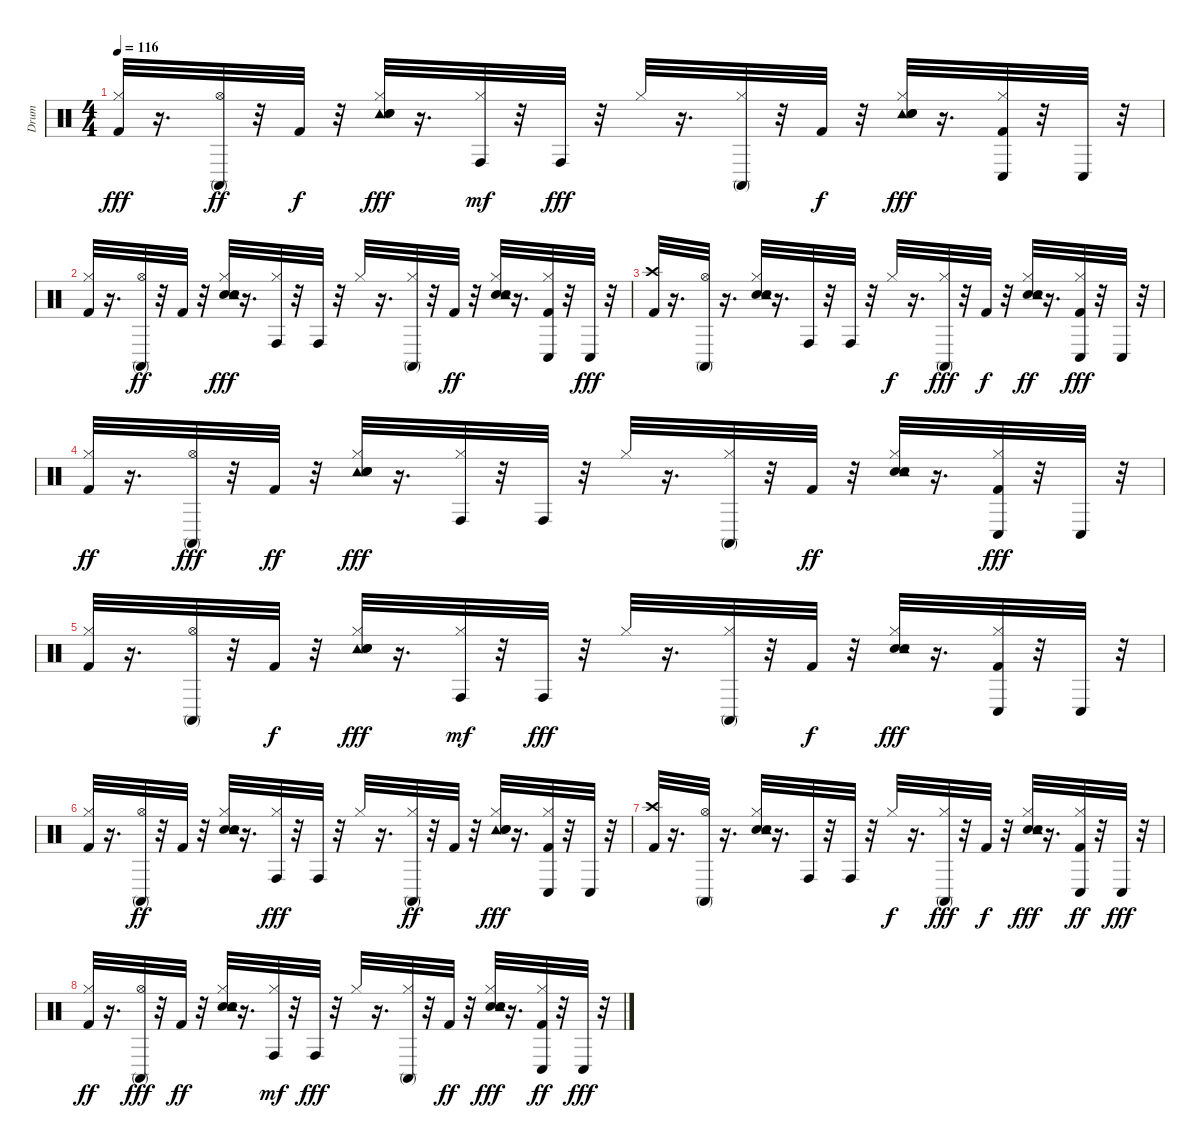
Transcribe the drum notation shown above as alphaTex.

\track ("Drum" "Drum") {instrument percussion}
\staff {score}
\articulation defaults
\ts (4 4)
\tempo 116
\clef neutral
\ks c
("Kick (hit) 2" "Hi-Hat (closed)").32{dy fff} r.16{d} ("Conga high (mute)" "Hi-Hat (open)").32{dy ff} r.32 "Kick (hit) 2".32{dy f} r.32 ("Tambourine (hit)" "Hand Clap (hit)" "Hi-Hat (closed)" "Electric Snare (hit)").32{dy fff} r.16{d} ("Conga high (hit)" "Hi-Hat (closed)").32{dy mf} r.32 "Conga high (hit)".32{dy fff} r.32 "Hi-Hat (closed)".32 r.16{d} ("Hi-Hat (closed)" "Conga high (mute)").32 r.32 "Kick (hit) 2".32{dy f} r.32 ("Tambourine (hit)" "Electric Snare (hit)" "Hand Clap (hit)" "Hi-Hat (closed)").32{dy fff} r.16{d} ("Kick (hit) 2" "Hi-Hat (closed)" "Conga low (hit)").32 r.32 "Conga low (hit)".32 r.32 |
("Kick (hit) 2" "Hi-Hat (closed)").32 r.16{d} ("Conga high (mute)" "Hi-Hat (open)").32{dy ff} r.32 "Kick (hit) 2".32 r.32 ("Electric Snare (hit)" "Tambourine (hit)" "Hi-Hat (closed)" "Hand Clap (hit)").32{dy fff} r.16{d} ("Hi-Hat (closed)" "Conga high (hit)").32 r.32 "Conga high (hit)".32 r.32 "Hi-Hat (closed)".32 r.16{d} ("Hi-Hat (closed)" "Conga high (mute)").32 r.32 "Kick (hit) 2".32{dy ff} r.32 ("Hi-Hat (closed)" "Hand Clap (hit)" "Electric Snare (hit)" "Tambourine (hit)").32 r.16{d} ("Conga low (hit)" "Hi-Hat (closed)" "Kick (hit) 2").32 r.32 "Conga low (hit)".32{dy fff} r.32 |
("Kick (hit) 2" "Crash high (hit)").32 r.16{d} ("Hi-Hat (open)" "Conga high (mute)").32 r.16{d} ("Hi-Hat (closed)" "Electric Snare (hit)" "Tambourine (hit)" "Hand Clap (hit)").32 r.16{d} "Conga high (hit)".32 r.32 "Conga high (hit)".32 r.32 "Hi-Hat (closed)".32{dy f} r.16{d} ("Hi-Hat (closed)" "Conga high (mute)").32{dy fff} r.32 "Kick (hit) 2".32{dy f} r.32 ("Electric Snare (hit)" "Hand Clap (hit)" "Tambourine (hit)" "Hi-Hat (closed)").32{dy ff} r.16{d} ("Hi-Hat (closed)" "Kick (hit) 2" "Conga low (hit)").32{dy fff} r.32 "Conga low (hit)".32 r.32 |
("Kick (hit) 2" "Hi-Hat (closed)").32{dy ff} r.16{d} ("Hi-Hat (open)" "Conga high (mute)").32{dy fff} r.32 "Kick (hit) 2".32{dy ff} r.32 ("Tambourine (hit)" "Hi-Hat (closed)" "Hand Clap (hit)" "Electric Snare (hit)").32{dy fff} r.16{d} ("Hi-Hat (closed)" "Conga high (hit)").32 r.32 "Conga high (hit)".32 r.32 "Hi-Hat (closed)".32 r.16{d} ("Hi-Hat (closed)" "Conga high (mute)").32 r.32 "Kick (hit) 2".32{dy ff} r.32 ("Electric Snare (hit)" "Hand Clap (hit)" "Hi-Hat (closed)" "Tambourine (hit)").32 r.16{d} ("Kick (hit) 2" "Hi-Hat (closed)" "Conga low (hit)").32{dy fff} r.32 "Conga low (hit)".32 r.32 |
("Kick (hit) 2" "Hi-Hat (closed)").32 r.16{d} ("Hi-Hat (open)" "Conga high (mute)").32 r.32 "Kick (hit) 2".32{dy f} r.32 ("Tambourine (hit)" "Hi-Hat (closed)" "Hand Clap (hit)" "Electric Snare (hit)").32{dy fff} r.16{d} ("Conga high (hit)" "Hi-Hat (closed)").32{dy mf} r.32 "Conga high (hit)".32{dy fff} r.32 "Hi-Hat (closed)".32 r.16{d} ("Conga high (mute)" "Hi-Hat (closed)").32 r.32 "Kick (hit) 2".32{dy f} r.32 ("Hand Clap (hit)" "Hi-Hat (closed)" "Tambourine (hit)" "Electric Snare (hit)").32{dy fff} r.16{d} ("Hi-Hat (closed)" "Kick (hit) 2" "Conga low (hit)").32 r.32 "Conga low (hit)".32 r.32 |
("Kick (hit) 2" "Hi-Hat (closed)").32 r.16{d} ("Conga high (mute)" "Hi-Hat (open)").32{dy ff} r.32 "Kick (hit) 2".32 r.32 ("Hi-Hat (closed)" "Electric Snare (hit)" "Hand Clap (hit)" "Tambourine (hit)").32 r.16{d} ("Conga high (hit)" "Hi-Hat (closed)").32{dy fff} r.32 "Conga high (hit)".32 r.32 "Hi-Hat (closed)".32 r.16{d} ("Conga high (mute)" "Hi-Hat (closed)").32{dy ff} r.32 "Kick (hit) 2".32 r.32 ("Tambourine (hit)" "Hi-Hat (closed)" "Electric Snare (hit)" "Hand Clap (hit)").32{dy fff} r.16{d} ("Kick (hit) 2" "Hi-Hat (closed)" "Conga low (hit)").32 r.32 "Conga low (hit)".32 r.32 |
("Kick (hit) 2" "Crash high (hit)").32 r.16{d} ("Hi-Hat (open)" "Conga high (mute)").32 r.16{d} ("Electric Snare (hit)" "Tambourine (hit)" "Hand Clap (hit)" "Hi-Hat (closed)").32 r.16{d} "Conga high (hit)".32 r.32 "Conga high (hit)".32 r.32 "Hi-Hat (closed)".32{dy f} r.16{d} ("Hi-Hat (closed)" "Conga high (mute)").32{dy fff} r.32 "Kick (hit) 2".32{dy f} r.32 ("Hand Clap (hit)" "Hi-Hat (closed)" "Tambourine (hit)" "Electric Snare (hit)").32{dy fff} r.16{d} ("Hi-Hat (closed)" "Conga low (hit)" "Kick (hit) 2").32{dy ff} r.32 "Conga low (hit)".32{dy fff} r.32 |
("Kick (hit) 2" "Hi-Hat (closed)").32{dy ff} r.16{d} ("Hi-Hat (open)" "Conga high (mute)").32{dy fff} r.32 "Kick (hit) 2".32{dy ff} r.32 ("Hand Clap (hit)" "Tambourine (hit)" "Electric Snare (hit)" "Hi-Hat (closed)").32 r.16{d} ("Conga high (hit)" "Hi-Hat (closed)").32{dy mf} r.32 "Conga high (hit)".32{dy fff} r.32 "Hi-Hat (closed)".32 r.16{d} ("Hi-Hat (closed)" "Conga high (mute)").32 r.32 "Kick (hit) 2".32{dy ff} r.32 ("Hand Clap (hit)" "Electric Snare (hit)" "Tambourine (hit)" "Hi-Hat (closed)").32{dy fff} r.16{d} ("Hi-Hat (closed)" "Conga low (hit)" "Kick (hit) 2").32{dy ff} r.32 "Conga low (hit)".32{dy fff} r.32
